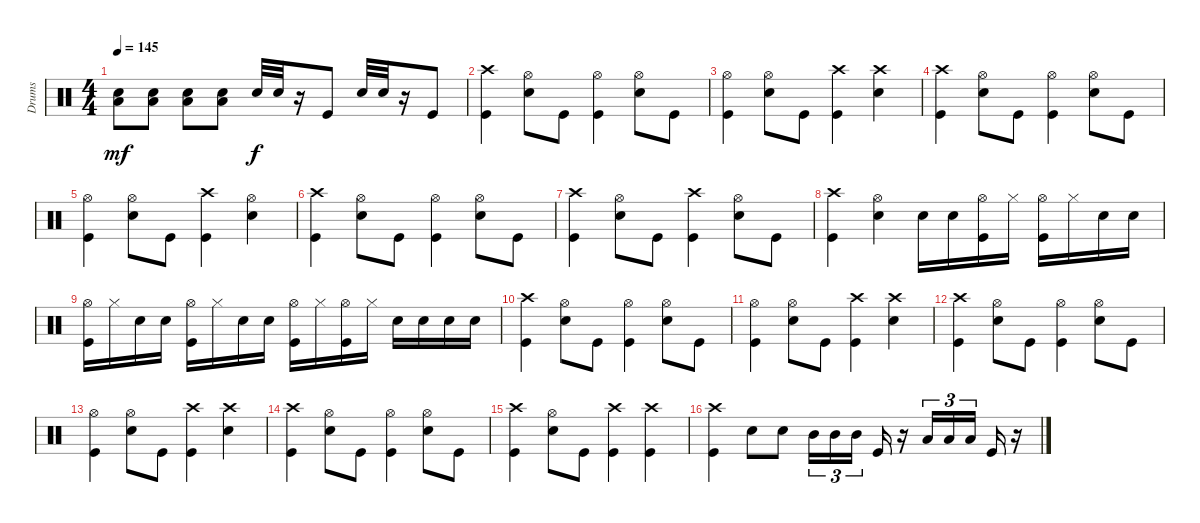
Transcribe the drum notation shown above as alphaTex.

\track ("Drums" "Drums") {instrument percussion}
\staff {score}
\articulation defaults
\ts (4 4)
\tempo 145
\clef neutral
\ks c
("Snare (hit) 2" "Low Floor Tom (hit)").8{dy mf} ("Snare (hit) 2" "Low Floor Tom (hit)").8 ("Snare (hit) 2" "Low Floor Tom (hit)").8 ("Snare (hit) 2" "Low Floor Tom (hit)").8 "Snare (hit) 2".32{dy f} "Snare (hit) 2".32 r.16 "Kick (hit)".8 "Snare (hit) 2".32 "Snare (hit) 2".32 r.16 "Kick (hit)".8 |
("Crash high (hit)" "Kick (hit)").4 ("Hi-Hat (open)" "Snare (hit) 2").8 "Kick (hit)".8 ("Hi-Hat (open)" "Kick (hit)").4 ("Hi-Hat (open)" "Snare (hit) 2").8 "Kick (hit)".8 |
("Hi-Hat (open)" "Kick (hit)").4 ("Hi-Hat (open)" "Snare (hit) 2").8 "Kick (hit)".8 ("Crash high (hit)" "Kick (hit)").4 ("Crash high (hit)" "Snare (hit) 2").4 |
("Crash high (hit)" "Kick (hit)").4 ("Hi-Hat (open)" "Snare (hit) 2").8 "Kick (hit)".8 ("Hi-Hat (open)" "Kick (hit)").4 ("Hi-Hat (open)" "Snare (hit) 2").8 "Kick (hit)".8 |
("Hi-Hat (open)" "Kick (hit)").4 ("Hi-Hat (open)" "Snare (hit) 2").8 "Kick (hit)".8 ("Crash high (hit)" "Kick (hit)").4 ("Hi-Hat (open)" "Snare (hit) 2").4 |
("Crash high (hit)" "Kick (hit)").4 ("Hi-Hat (open)" "Snare (hit) 2").8 "Kick (hit)".8 ("Hi-Hat (open)" "Kick (hit)").4 ("Hi-Hat (open)" "Snare (hit) 2").8 "Kick (hit)".8 |
("Crash high (hit)" "Kick (hit)").4 ("Hi-Hat (open)" "Snare (hit) 2").8 "Kick (hit)".8 ("Crash high (hit)" "Kick (hit)").4 ("Hi-Hat (open)" "Snare (hit) 2").8 "Kick (hit)".8 |
("Crash high (hit)" "Kick (hit)").4 ("Hi-Hat (open)" "Snare (hit) 2").4 "Snare (hit) 2".16 "Snare (hit) 2".16 ("Hi-Hat (open)" "Kick (hit)").16 "Hi-Hat (closed)".16 ("Hi-Hat (open)" "Kick (hit)").16 "Hi-Hat (closed)".16 "Snare (hit) 2".16 "Snare (hit) 2".16 |
("Hi-Hat (open)" "Kick (hit)").16 "Hi-Hat (closed)".16 "Snare (hit) 2".16 "Snare (hit) 2".16 ("Hi-Hat (open)" "Kick (hit)").16 "Hi-Hat (closed)".16 "Snare (hit) 2".16 "Snare (hit) 2".16 ("Hi-Hat (open)" "Kick (hit)").16 "Hi-Hat (closed)".16 ("Hi-Hat (open)" "Kick (hit)").16 "Hi-Hat (closed)".16 "Snare (hit) 2".16 "Snare (hit) 2".16 "Snare (hit) 2".16 "Snare (hit) 2".16 |
("Crash high (hit)" "Kick (hit)").4 ("Hi-Hat (open)" "Snare (hit) 2").8 "Kick (hit)".8 ("Hi-Hat (open)" "Kick (hit)").4 ("Hi-Hat (open)" "Snare (hit) 2").8 "Kick (hit)".8 |
("Hi-Hat (open)" "Kick (hit)").4 ("Hi-Hat (open)" "Snare (hit) 2").8 "Kick (hit)".8 ("Crash high (hit)" "Kick (hit)").4 ("Crash high (hit)" "Snare (hit) 2").4 |
("Crash high (hit)" "Kick (hit)").4 ("Hi-Hat (open)" "Snare (hit) 2").8 "Kick (hit)".8 ("Hi-Hat (open)" "Kick (hit)").4 ("Hi-Hat (open)" "Snare (hit) 2").8 "Kick (hit)".8 |
("Hi-Hat (open)" "Kick (hit)").4 ("Hi-Hat (open)" "Snare (hit) 2").8 "Kick (hit)".8 ("Crash high (hit)" "Kick (hit)").4 ("Crash high (hit)" "Snare (hit) 2").4 |
("Crash high (hit)" "Kick (hit)").4 ("Hi-Hat (open)" "Snare (hit) 2").8 "Kick (hit)".8 ("Hi-Hat (open)" "Kick (hit)").4 ("Hi-Hat (open)" "Snare (hit) 2").8 "Kick (hit)".8 |
("Crash high (hit)" "Kick (hit)").4 ("Hi-Hat (open)" "Snare (hit) 2").8 "Kick (hit)".8 ("Crash high (hit)" "Kick (hit)").4 ("Crash high (hit)" "Kick (hit)").4 |
("Crash high (hit)" "Kick (hit)").4 "Snare (hit) 2".8 "Snare (hit) 2".8 "Mid Tom (hit)".16{tu (3 2)} "Mid Tom (hit)".16{tu (3 2)} "Mid Tom (hit)".16{tu (3 2)} "Kick (hit)".16 r.16 "Low Tom (hit)".16{tu (3 2)} "Low Tom (hit)".16{tu (3 2)} "Low Tom (hit)".16{tu (3 2)} "Kick (hit)".16 r.16
